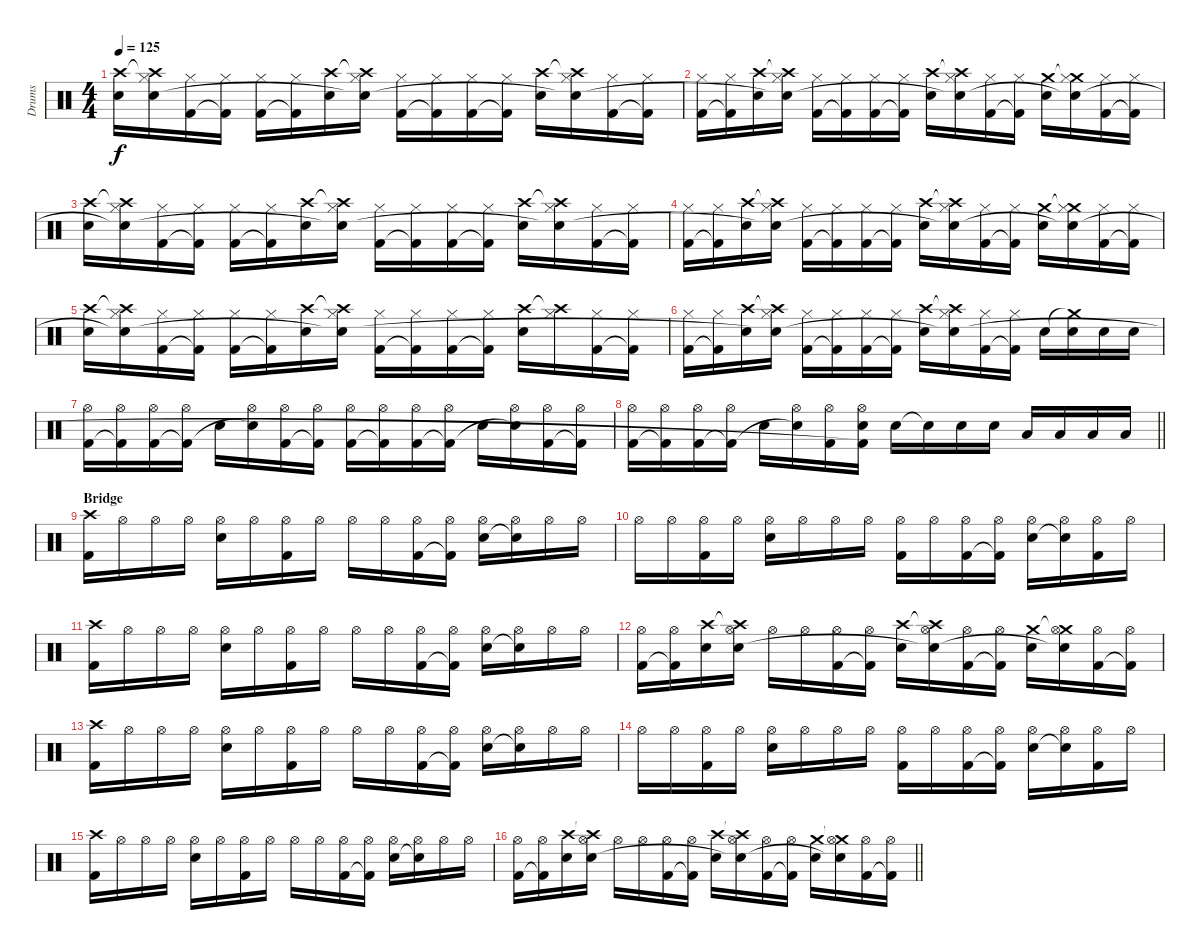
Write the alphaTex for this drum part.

\track ("Drums" "Drums") {instrument percussion}
\staff {score}
\articulation defaults
\ts (4 4)
\tempo 125
\clef neutral
\ks c
("Crash high (hit)" "Snare (hit) 2").16{dy f} ("Crash high (hit)"{t} "Hi-Hat (closed)" "Snare (hit) 2"{t}).16 ("Hi-Hat (closed)" "Kick (hit) 2").16 ("Hi-Hat (closed)" "Kick (hit) 2"{t}).16 ("Hi-Hat (closed)" "Kick (hit) 2").16 ("Hi-Hat (closed)" "Kick (hit) 2"{t}).16 ("Crash high (hit)" "Snare (hit) 2").16 ("Crash high (hit)"{t} "Hi-Hat (closed)" "Snare (hit) 2"{t}).16 ("Hi-Hat (closed)" "Kick (hit) 2").16 ("Hi-Hat (closed)" "Kick (hit) 2"{t}).16 ("Hi-Hat (closed)" "Kick (hit) 2").16 ("Hi-Hat (closed)" "Kick (hit) 2"{t}).16 ("Crash high (hit)" "Snare (hit) 2").16 ("Crash high (hit)"{t} "Hi-Hat (closed)" "Snare (hit) 2"{t}).16 ("Hi-Hat (closed)" "Kick (hit) 2").16 ("Hi-Hat (closed)" "Kick (hit) 2"{t}).16 |
("Hi-Hat (closed)" "Kick (hit) 2").16 ("Hi-Hat (closed)" "Kick (hit) 2"{t}).16 ("Crash high (hit)" "Snare (hit) 2").16 ("Crash high (hit)"{t} "Hi-Hat (closed)" "Snare (hit) 2"{t}).16 ("Hi-Hat (closed)" "Kick (hit) 2").16 ("Hi-Hat (closed)" "Kick (hit) 2"{t}).16 ("Hi-Hat (closed)" "Kick (hit) 2").16 ("Hi-Hat (closed)" "Kick (hit) 2"{t}).16 ("Crash high (hit)" "Snare (hit) 2").16 ("Crash high (hit)"{t} "Hi-Hat (closed)" "Snare (hit) 2"{t}).16 ("Hi-Hat (closed)" "Kick (hit) 2").16 ("Hi-Hat (closed)" "Kick (hit) 2"{t}).16 ("Crash medium (hit)" "Snare (hit) 2").16 ("Crash medium (hit)"{t} "Hi-Hat (closed)" "Snare (hit) 2"{t}).16 ("Hi-Hat (closed)" "Kick (hit) 2").16 ("Hi-Hat (closed)" "Kick (hit) 2"{t}).16 |
("Crash high (hit)" "Snare (hit) 2").16 ("Crash high (hit)"{t} "Hi-Hat (closed)" "Snare (hit) 2"{t}).16 ("Hi-Hat (closed)" "Kick (hit) 2").16 ("Hi-Hat (closed)" "Kick (hit) 2"{t}).16 ("Hi-Hat (closed)" "Kick (hit) 2").16 ("Hi-Hat (closed)" "Kick (hit) 2"{t}).16 ("Crash high (hit)" "Snare (hit) 2").16 ("Crash high (hit)"{t} "Hi-Hat (closed)" "Snare (hit) 2"{t}).16 ("Hi-Hat (closed)" "Kick (hit) 2").16 ("Hi-Hat (closed)" "Kick (hit) 2"{t}).16 ("Hi-Hat (closed)" "Kick (hit) 2").16 ("Hi-Hat (closed)" "Kick (hit) 2"{t}).16 ("Crash high (hit)" "Snare (hit) 2").16 ("Crash high (hit)"{t} "Hi-Hat (closed)" "Snare (hit) 2"{t}).16 ("Hi-Hat (closed)" "Kick (hit) 2").16 ("Hi-Hat (closed)" "Kick (hit) 2"{t}).16 |
("Hi-Hat (closed)" "Kick (hit) 2").16 ("Hi-Hat (closed)" "Kick (hit) 2"{t}).16 ("Crash high (hit)" "Snare (hit) 2").16 ("Crash high (hit)"{t} "Hi-Hat (closed)" "Snare (hit) 2"{t}).16 ("Hi-Hat (closed)" "Kick (hit) 2").16 ("Hi-Hat (closed)" "Kick (hit) 2"{t}).16 ("Hi-Hat (closed)" "Kick (hit) 2").16 ("Hi-Hat (closed)" "Kick (hit) 2"{t}).16 ("Crash high (hit)" "Snare (hit) 2").16 ("Crash high (hit)"{t} "Hi-Hat (closed)" "Snare (hit) 2"{t}).16 ("Hi-Hat (closed)" "Kick (hit) 2").16 ("Hi-Hat (closed)" "Kick (hit) 2"{t}).16 ("Crash medium (hit)" "Snare (hit) 2").16 ("Crash medium (hit)"{t} "Hi-Hat (closed)" "Snare (hit) 2"{t}).16 ("Hi-Hat (closed)" "Kick (hit) 2").16 ("Hi-Hat (closed)" "Kick (hit) 2"{t}).16 |
("Crash high (hit)" "Snare (hit) 2").16 ("Crash high (hit)"{t} "Hi-Hat (closed)" "Snare (hit) 2"{t}).16 ("Hi-Hat (closed)" "Kick (hit) 2").16 ("Hi-Hat (closed)" "Kick (hit) 2"{t}).16 ("Hi-Hat (closed)" "Kick (hit) 2").16 ("Hi-Hat (closed)" "Kick (hit) 2"{t}).16 ("Crash high (hit)" "Snare (hit) 2").16 ("Crash high (hit)"{t} "Hi-Hat (closed)" "Snare (hit) 2"{t}).16 ("Hi-Hat (closed)" "Kick (hit) 2").16 ("Hi-Hat (closed)" "Kick (hit) 2"{t}).16 ("Hi-Hat (closed)" "Kick (hit) 2").16 ("Hi-Hat (closed)" "Kick (hit) 2"{t}).16 ("Crash high (hit)" "Snare (hit) 2").16 ("Crash high (hit)"{t} "Hi-Hat (closed)").16 ("Hi-Hat (closed)" "Kick (hit) 2").16 ("Hi-Hat (closed)" "Kick (hit) 2"{t}).16 |
("Hi-Hat (closed)" "Kick (hit) 2").16 ("Hi-Hat (closed)" "Kick (hit) 2"{t}).16 ("Crash high (hit)" "Snare (hit) 2").16 ("Crash high (hit)"{t} "Hi-Hat (closed)" "Snare (hit) 2"{t}).16 ("Hi-Hat (closed)" "Kick (hit) 2").16 ("Hi-Hat (closed)" "Kick (hit) 2"{t}).16 ("Hi-Hat (closed)" "Kick (hit) 2").16 ("Hi-Hat (closed)" "Kick (hit) 2"{t}).16 ("Crash high (hit)" "Snare (hit) 2").16 ("Crash high (hit)"{t} "Hi-Hat (closed)" "Snare (hit) 2"{t}).16 ("Hi-Hat (closed)" "Kick (hit) 2").16 ("Hi-Hat (closed)" "Kick (hit) 2"{t}).16 "Snare (hit) 2".16 ("Crash medium (hit)"{t} "Snare (hit) 2").16 "Snare (hit) 2".16 "Snare (hit) 2".16 |
("Hi-Hat (open)" "Kick (hit) 2").16 ("Hi-Hat (open)" "Kick (hit) 2"{t}).16 ("Hi-Hat (open)" "Kick (hit) 2").16 ("Hi-Hat (open)" "Kick (hit) 2"{t}).16 "Snare (hit) 2".16 ("Hi-Hat (open)" "Snare (hit) 2"{t}).16 ("Hi-Hat (open)" "Kick (hit) 2").16 ("Hi-Hat (open)" "Kick (hit) 2"{t}).16 ("Hi-Hat (open)" "Kick (hit) 2").16 ("Hi-Hat (open)" "Kick (hit) 2"{t}).16 ("Hi-Hat (open)" "Kick (hit) 2").16 ("Hi-Hat (open)" "Kick (hit) 2"{t}).16 "Snare (hit) 2".16 ("Hi-Hat (open)" "Snare (hit) 2"{t}).16 ("Hi-Hat (open)" "Kick (hit) 2").16 ("Hi-Hat (open)" "Kick (hit) 2"{t}).16 |
\barLineRight lightlight
("Hi-Hat (open)" "Kick (hit) 2").16 ("Hi-Hat (open)" "Kick (hit) 2"{t}).16 ("Hi-Hat (open)" "Kick (hit) 2").16 ("Hi-Hat (open)" "Kick (hit) 2"{t}).16 "Snare (hit) 2".16 ("Hi-Hat (open)" "Snare (hit) 2"{t}).16 ("Hi-Hat (open)" "Kick (hit) 2").16 ("Hi-Hat (open)" "Snare (hit) 2" "Kick (hit) 2"{t}).16 "Snare (hit) 2".16 "Snare (hit) 2"{t}.16 "Snare (hit) 2".16 "Snare (hit) 2".16 "Low Floor Tom (hit)".16 "Low Floor Tom (hit)".16 "Low Tom (hit)".16 "Low Tom (hit)".16 |
\section ("" "Bridge")
("Crash high (hit)" "Kick (hit) 2").16 "Hi-Hat (open)".16 "Hi-Hat (open)".16 "Hi-Hat (open)".16 ("Hi-Hat (open)" "Snare (hit) 2").16 "Hi-Hat (open)".16 ("Hi-Hat (open)" "Kick (hit) 2").16 "Hi-Hat (open)".16 "Hi-Hat (open)".16 "Hi-Hat (open)".16 ("Hi-Hat (open)" "Kick (hit) 2").16 ("Hi-Hat (open)" "Kick (hit) 2"{t}).16 ("Hi-Hat (open)" "Snare (hit) 2").16 ("Hi-Hat (open)" "Snare (hit) 2"{t}).16 "Hi-Hat (open)".16 "Hi-Hat (open)".16 |
"Hi-Hat (open)".16 "Hi-Hat (open)".16 ("Hi-Hat (open)" "Kick (hit) 2").16 "Hi-Hat (open)".16 ("Hi-Hat (open)" "Snare (hit) 2").16 "Hi-Hat (open)".16 "Hi-Hat (open)".16 "Hi-Hat (open)".16 ("Hi-Hat (open)" "Kick (hit) 2").16 "Hi-Hat (open)".16 ("Hi-Hat (open)" "Kick (hit) 2").16 ("Hi-Hat (open)" "Kick (hit) 2"{t}).16 ("Hi-Hat (open)" "Snare (hit) 2").16 ("Hi-Hat (open)" "Snare (hit) 2"{t}).16 ("Hi-Hat (open)" "Kick (hit) 2").16 "Hi-Hat (open)".16 |
("Crash high (hit)" "Kick (hit) 2").16 "Hi-Hat (open)".16 "Hi-Hat (open)".16 "Hi-Hat (open)".16 ("Hi-Hat (open)" "Snare (hit) 2").16 "Hi-Hat (open)".16 ("Hi-Hat (open)" "Kick (hit) 2").16 "Hi-Hat (open)".16 "Hi-Hat (open)".16 "Hi-Hat (open)".16 ("Hi-Hat (open)" "Kick (hit) 2").16 ("Hi-Hat (open)" "Kick (hit) 2"{t}).16 ("Hi-Hat (open)" "Snare (hit) 2").16 ("Hi-Hat (open)" "Snare (hit) 2"{t}).16 "Hi-Hat (open)".16 "Hi-Hat (open)".16 |
("Hi-Hat (open)" "Kick (hit) 2").16 ("Hi-Hat (open)" "Kick (hit) 2"{t}).16 ("Crash high (hit)" "Snare (hit) 2").16 ("Crash high (hit)"{t} "Hi-Hat (open)" "Snare (hit) 2").16 "Hi-Hat (open)".16 "Hi-Hat (open)".16 ("Hi-Hat (open)" "Kick (hit) 2").16 ("Hi-Hat (open)" "Kick (hit) 2"{t}).16 ("Crash high (hit)" "Snare (hit) 2").16 ("Crash high (hit)"{t} "Hi-Hat (open)" "Snare (hit) 2"{t}).16 ("Hi-Hat (open)" "Kick (hit) 2").16 ("Hi-Hat (open)" "Kick (hit) 2"{t}).16 ("Crash medium (hit)" "Snare (hit) 2").16 ("Crash medium (hit)"{t} "Hi-Hat (open)" "Snare (hit) 2"{t}).16 ("Hi-Hat (open)" "Kick (hit) 2").16 ("Hi-Hat (open)" "Kick (hit) 2"{t}).16 |
("Crash high (hit)" "Kick (hit) 2").16 "Hi-Hat (open)".16 "Hi-Hat (open)".16 "Hi-Hat (open)".16 ("Hi-Hat (open)" "Snare (hit) 2").16 "Hi-Hat (open)".16 ("Hi-Hat (open)" "Kick (hit) 2").16 "Hi-Hat (open)".16 "Hi-Hat (open)".16 "Hi-Hat (open)".16 ("Hi-Hat (open)" "Kick (hit) 2").16 ("Hi-Hat (open)" "Kick (hit) 2"{t}).16 ("Hi-Hat (open)" "Snare (hit) 2").16 ("Hi-Hat (open)" "Snare (hit) 2"{t}).16 "Hi-Hat (open)".16 "Hi-Hat (open)".16 |
"Hi-Hat (open)".16 "Hi-Hat (open)".16 ("Hi-Hat (open)" "Kick (hit) 2").16 "Hi-Hat (open)".16 ("Hi-Hat (open)" "Snare (hit) 2").16 "Hi-Hat (open)".16 "Hi-Hat (open)".16 "Hi-Hat (open)".16 ("Hi-Hat (open)" "Kick (hit) 2").16 "Hi-Hat (open)".16 ("Hi-Hat (open)" "Kick (hit) 2").16 ("Hi-Hat (open)" "Kick (hit) 2"{t}).16 ("Hi-Hat (open)" "Snare (hit) 2").16 ("Hi-Hat (open)" "Snare (hit) 2"{t}).16 ("Hi-Hat (open)" "Kick (hit) 2").16 "Hi-Hat (open)".16 |
("Crash high (hit)" "Kick (hit) 2").16 "Hi-Hat (open)".16 "Hi-Hat (open)".16 "Hi-Hat (open)".16 ("Hi-Hat (open)" "Snare (hit) 2").16 "Hi-Hat (open)".16 ("Hi-Hat (open)" "Kick (hit) 2").16 "Hi-Hat (open)".16 "Hi-Hat (open)".16 "Hi-Hat (open)".16 ("Hi-Hat (open)" "Kick (hit) 2").16 ("Hi-Hat (open)" "Kick (hit) 2"{t}).16 ("Hi-Hat (open)" "Snare (hit) 2").16 ("Hi-Hat (open)" "Snare (hit) 2"{t}).16 "Hi-Hat (open)".16 "Hi-Hat (open)".16 |
\barLineRight lightlight
("Hi-Hat (open)" "Kick (hit) 2").16 ("Hi-Hat (open)" "Kick (hit) 2"{t}).16 ("Crash high (hit)" "Snare (hit) 2").16 ("Crash high (hit)"{t} "Hi-Hat (open)" "Snare (hit) 2").16 "Hi-Hat (open)".16 "Hi-Hat (open)".16 ("Hi-Hat (open)" "Kick (hit) 2").16 ("Hi-Hat (open)" "Kick (hit) 2"{t}).16 ("Crash high (hit)" "Snare (hit) 2").16 ("Crash high (hit)"{t} "Hi-Hat (open)" "Snare (hit) 2"{t}).16 ("Hi-Hat (open)" "Kick (hit) 2").16 ("Hi-Hat (open)" "Kick (hit) 2"{t}).16 ("Crash medium (hit)" "Snare (hit) 2").16 ("Crash medium (hit)"{t} "Hi-Hat (open)" "Snare (hit) 2"{t}).16 ("Hi-Hat (open)" "Kick (hit) 2").16 ("Hi-Hat (open)" "Kick (hit) 2"{t}).16
